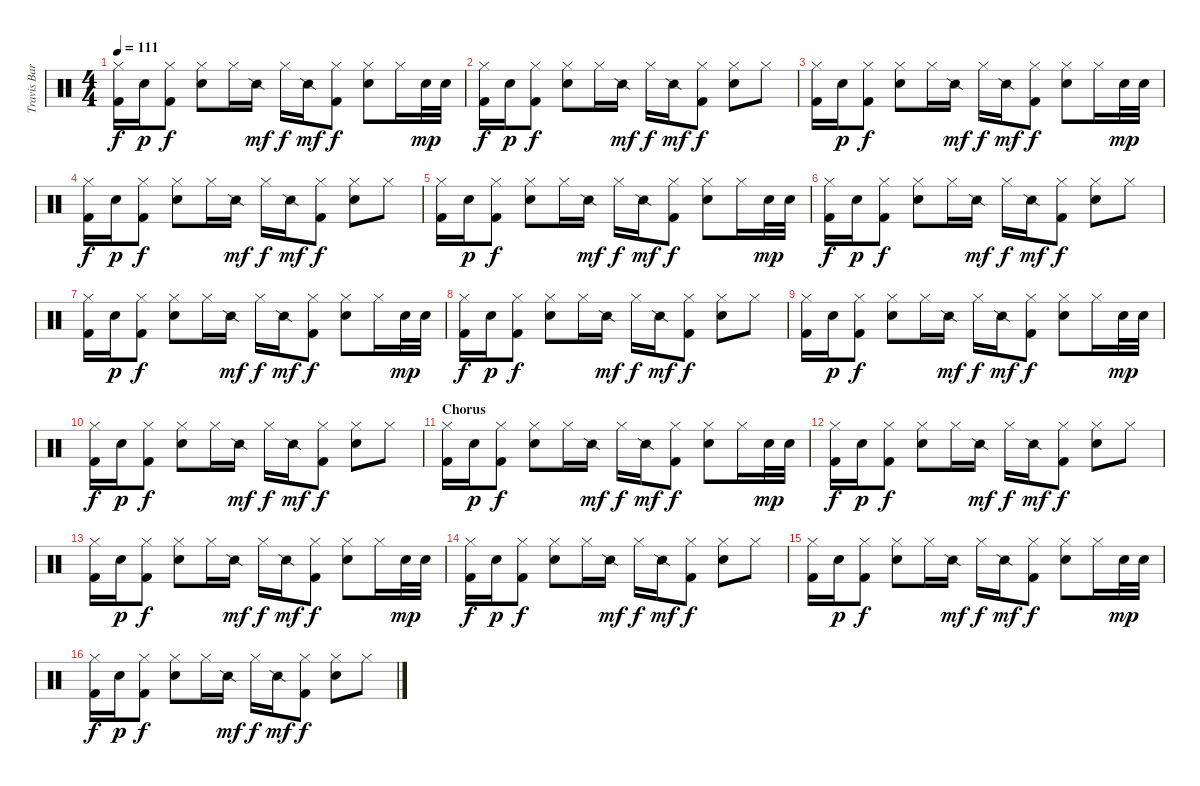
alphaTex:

\track ("Travis Barker - Drums" "Travis Bar") {instrument percussion}
\staff {score}
\articulation defaults
\ts (4 4)
\tempo 111
\clef neutral
\ks c
("Hi-Hat (closed)" "Kick (hit) 2").16{dy f} "Electric Snare (hit)".16{dy p} ("Hi-Hat (closed)" "Kick (hit) 2").8{dy f} ("Hi-Hat (closed)" "Electric Snare (hit)").8 "Hi-Hat (closed)".16 "Snare (side stick) 2".16{dy mf} "Hi-Hat (closed)".16{dy f} "Snare (side stick) 2".16{dy mf} ("Hi-Hat (closed)" "Kick (hit) 2").8{dy f} ("Hi-Hat (closed)" "Electric Snare (hit)").8 "Hi-Hat (closed)".16 "Electric Snare (hit)".32{dy mp} "Electric Snare (hit)".32 |
("Hi-Hat (closed)" "Kick (hit) 2").16{dy f} "Electric Snare (hit)".16{dy p} ("Hi-Hat (closed)" "Kick (hit) 2").8{dy f} ("Hi-Hat (closed)" "Electric Snare (hit)").8 "Hi-Hat (closed)".16 "Snare (side stick) 2".16{dy mf} "Hi-Hat (closed)".16{dy f} "Snare (side stick) 2".16{dy mf} ("Hi-Hat (closed)" "Kick (hit) 2").8{dy f} ("Hi-Hat (closed)" "Electric Snare (hit)").8 "Hi-Hat (closed)".8 |
("Hi-Hat (closed)" "Kick (hit) 2").16 "Electric Snare (hit)".16{dy p} ("Hi-Hat (closed)" "Kick (hit) 2").8{dy f} ("Hi-Hat (closed)" "Electric Snare (hit)").8 "Hi-Hat (closed)".16 "Snare (side stick) 2".16{dy mf} "Hi-Hat (closed)".16{dy f} "Snare (side stick) 2".16{dy mf} ("Hi-Hat (closed)" "Kick (hit) 2").8{dy f} ("Hi-Hat (closed)" "Electric Snare (hit)").8 "Hi-Hat (closed)".16 "Electric Snare (hit)".32{dy mp} "Electric Snare (hit)".32 |
("Hi-Hat (closed)" "Kick (hit) 2").16{dy f} "Electric Snare (hit)".16{dy p} ("Hi-Hat (closed)" "Kick (hit) 2").8{dy f} ("Hi-Hat (closed)" "Electric Snare (hit)").8 "Hi-Hat (closed)".16 "Snare (side stick) 2".16{dy mf} "Hi-Hat (closed)".16{dy f} "Snare (side stick) 2".16{dy mf} ("Hi-Hat (closed)" "Kick (hit) 2").8{dy f} ("Hi-Hat (closed)" "Electric Snare (hit)").8 "Hi-Hat (closed)".8 |
("Hi-Hat (closed)" "Kick (hit) 2").16 "Electric Snare (hit)".16{dy p} ("Hi-Hat (closed)" "Kick (hit) 2").8{dy f} ("Hi-Hat (closed)" "Electric Snare (hit)").8 "Hi-Hat (closed)".16 "Snare (side stick) 2".16{dy mf} "Hi-Hat (closed)".16{dy f} "Snare (side stick) 2".16{dy mf} ("Hi-Hat (closed)" "Kick (hit) 2").8{dy f} ("Hi-Hat (closed)" "Electric Snare (hit)").8 "Hi-Hat (closed)".16 "Electric Snare (hit)".32{dy mp} "Electric Snare (hit)".32 |
("Hi-Hat (closed)" "Kick (hit) 2").16{dy f} "Electric Snare (hit)".16{dy p} ("Hi-Hat (closed)" "Kick (hit) 2").8{dy f} ("Hi-Hat (closed)" "Electric Snare (hit)").8 "Hi-Hat (closed)".16 "Snare (side stick) 2".16{dy mf} "Hi-Hat (closed)".16{dy f} "Snare (side stick) 2".16{dy mf} ("Hi-Hat (closed)" "Kick (hit) 2").8{dy f} ("Hi-Hat (closed)" "Electric Snare (hit)").8 "Hi-Hat (closed)".8 |
("Hi-Hat (closed)" "Kick (hit) 2").16 "Electric Snare (hit)".16{dy p} ("Hi-Hat (closed)" "Kick (hit) 2").8{dy f} ("Hi-Hat (closed)" "Electric Snare (hit)").8 "Hi-Hat (closed)".16 "Snare (side stick) 2".16{dy mf} "Hi-Hat (closed)".16{dy f} "Snare (side stick) 2".16{dy mf} ("Hi-Hat (closed)" "Kick (hit) 2").8{dy f} ("Hi-Hat (closed)" "Electric Snare (hit)").8 "Hi-Hat (closed)".16 "Electric Snare (hit)".32{dy mp} "Electric Snare (hit)".32 |
("Hi-Hat (closed)" "Kick (hit) 2").16{dy f} "Electric Snare (hit)".16{dy p} ("Hi-Hat (closed)" "Kick (hit) 2").8{dy f} ("Hi-Hat (closed)" "Electric Snare (hit)").8 "Hi-Hat (closed)".16 "Snare (side stick) 2".16{dy mf} "Hi-Hat (closed)".16{dy f} "Snare (side stick) 2".16{dy mf} ("Hi-Hat (closed)" "Kick (hit) 2").8{dy f} ("Hi-Hat (closed)" "Electric Snare (hit)").8 "Hi-Hat (closed)".8 |
("Hi-Hat (closed)" "Kick (hit) 2").16 "Electric Snare (hit)".16{dy p} ("Hi-Hat (closed)" "Kick (hit) 2").8{dy f} ("Hi-Hat (closed)" "Electric Snare (hit)").8 "Hi-Hat (closed)".16 "Snare (side stick) 2".16{dy mf} "Hi-Hat (closed)".16{dy f} "Snare (side stick) 2".16{dy mf} ("Hi-Hat (closed)" "Kick (hit) 2").8{dy f} ("Hi-Hat (closed)" "Electric Snare (hit)").8 "Hi-Hat (closed)".16 "Electric Snare (hit)".32{dy mp} "Electric Snare (hit)".32 |
("Hi-Hat (closed)" "Kick (hit) 2").16{dy f} "Electric Snare (hit)".16{dy p} ("Hi-Hat (closed)" "Kick (hit) 2").8{dy f} ("Hi-Hat (closed)" "Electric Snare (hit)").8 "Hi-Hat (closed)".16 "Snare (side stick) 2".16{dy mf} "Hi-Hat (closed)".16{dy f} "Snare (side stick) 2".16{dy mf} ("Hi-Hat (closed)" "Kick (hit) 2").8{dy f} ("Hi-Hat (closed)" "Electric Snare (hit)").8 "Hi-Hat (closed)".8 |
\section ("" "Chorus")
("Hi-Hat (closed)" "Kick (hit) 2").16 "Electric Snare (hit)".16{dy p} ("Hi-Hat (closed)" "Kick (hit) 2").8{dy f} ("Hi-Hat (closed)" "Electric Snare (hit)").8 "Hi-Hat (closed)".16 "Snare (side stick) 2".16{dy mf} "Hi-Hat (closed)".16{dy f} "Snare (side stick) 2".16{dy mf} ("Hi-Hat (closed)" "Kick (hit) 2").8{dy f} ("Hi-Hat (closed)" "Electric Snare (hit)").8 "Hi-Hat (closed)".16 "Electric Snare (hit)".32{dy mp} "Electric Snare (hit)".32 |
("Hi-Hat (closed)" "Kick (hit) 2").16{dy f} "Electric Snare (hit)".16{dy p} ("Hi-Hat (closed)" "Kick (hit) 2").8{dy f} ("Hi-Hat (closed)" "Electric Snare (hit)").8 "Hi-Hat (closed)".16 "Snare (side stick) 2".16{dy mf} "Hi-Hat (closed)".16{dy f} "Snare (side stick) 2".16{dy mf} ("Hi-Hat (closed)" "Kick (hit) 2").8{dy f} ("Hi-Hat (closed)" "Electric Snare (hit)").8 "Hi-Hat (closed)".8 |
("Hi-Hat (closed)" "Kick (hit) 2").16 "Electric Snare (hit)".16{dy p} ("Hi-Hat (closed)" "Kick (hit) 2").8{dy f} ("Hi-Hat (closed)" "Electric Snare (hit)").8 "Hi-Hat (closed)".16 "Snare (side stick) 2".16{dy mf} "Hi-Hat (closed)".16{dy f} "Snare (side stick) 2".16{dy mf} ("Hi-Hat (closed)" "Kick (hit) 2").8{dy f} ("Hi-Hat (closed)" "Electric Snare (hit)").8 "Hi-Hat (closed)".16 "Electric Snare (hit)".32{dy mp} "Electric Snare (hit)".32 |
("Hi-Hat (closed)" "Kick (hit) 2").16{dy f} "Electric Snare (hit)".16{dy p} ("Hi-Hat (closed)" "Kick (hit) 2").8{dy f} ("Hi-Hat (closed)" "Electric Snare (hit)").8 "Hi-Hat (closed)".16 "Snare (side stick) 2".16{dy mf} "Hi-Hat (closed)".16{dy f} "Snare (side stick) 2".16{dy mf} ("Hi-Hat (closed)" "Kick (hit) 2").8{dy f} ("Hi-Hat (closed)" "Electric Snare (hit)").8 "Hi-Hat (closed)".8 |
("Hi-Hat (closed)" "Kick (hit) 2").16 "Electric Snare (hit)".16{dy p} ("Hi-Hat (closed)" "Kick (hit) 2").8{dy f} ("Hi-Hat (closed)" "Electric Snare (hit)").8 "Hi-Hat (closed)".16 "Snare (side stick) 2".16{dy mf} "Hi-Hat (closed)".16{dy f} "Snare (side stick) 2".16{dy mf} ("Hi-Hat (closed)" "Kick (hit) 2").8{dy f} ("Hi-Hat (closed)" "Electric Snare (hit)").8 "Hi-Hat (closed)".16 "Electric Snare (hit)".32{dy mp} "Electric Snare (hit)".32 |
("Hi-Hat (closed)" "Kick (hit) 2").16{dy f} "Electric Snare (hit)".16{dy p} ("Hi-Hat (closed)" "Kick (hit) 2").8{dy f} ("Hi-Hat (closed)" "Electric Snare (hit)").8 "Hi-Hat (closed)".16 "Snare (side stick) 2".16{dy mf} "Hi-Hat (closed)".16{dy f} "Snare (side stick) 2".16{dy mf} ("Hi-Hat (closed)" "Kick (hit) 2").8{dy f} ("Hi-Hat (closed)" "Electric Snare (hit)").8 "Hi-Hat (closed)".8
